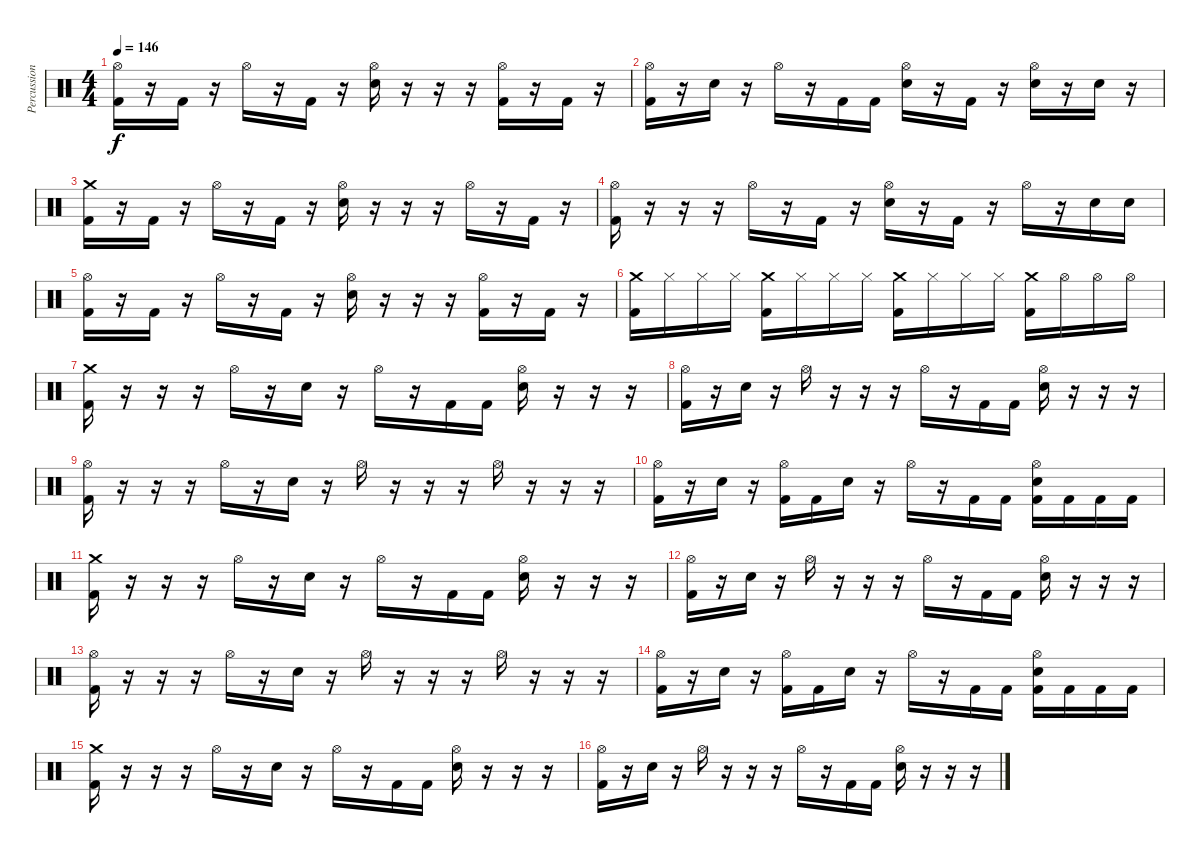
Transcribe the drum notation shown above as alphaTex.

\track ("Percussion" "Percussion") {instrument percussion}
\staff {score}
\articulation defaults
\ts (4 4)
\tempo 146
\clef neutral
\ks c
("Hi-Hat (open)" "Kick (hit) 2").16{dy f} r.16 "Kick (hit) 2".16 r.16 "Hi-Hat (open)".16 r.16 "Kick (hit) 2".16 r.16 ("Hi-Hat (open)" "Snare (hit) 2").16 r.16 r.16 r.16 ("Hi-Hat (open)" "Kick (hit) 2").16 r.16 "Kick (hit) 2".16 r.16 |
("Hi-Hat (open)" "Kick (hit) 2").16 r.16 "Snare (hit) 2".16 r.16 "Hi-Hat (open)".16 r.16 "Kick (hit) 2".16 "Kick (hit) 2".16 ("Hi-Hat (open)" "Snare (hit) 2").16 r.16 "Kick (hit) 2".16 r.16 ("Hi-Hat (open)" "Snare (hit) 2").16 r.16 "Snare (hit) 2".16 r.16 |
("Crash medium (hit)" "Kick (hit) 2").16 r.16 "Kick (hit) 2".16 r.16 "Hi-Hat (open)".16 r.16 "Kick (hit) 2".16 r.16 ("Hi-Hat (open)" "Snare (hit) 2").16 r.16 r.16 r.16 "Hi-Hat (open)".16 r.16 "Kick (hit) 2".16 r.16 |
("Hi-Hat (open)" "Kick (hit) 2").16 r.16 r.16 r.16 "Hi-Hat (open)".16 r.16 "Kick (hit) 2".16 r.16 ("Hi-Hat (open)" "Snare (hit) 2").16 r.16 "Kick (hit) 2".16 r.16 "Hi-Hat (open)".16 r.16 "Snare (hit) 2".16 "Snare (hit) 2".16 |
("Hi-Hat (open)" "Kick (hit) 2").16 r.16 "Kick (hit) 2".16 r.16 "Hi-Hat (open)".16 r.16 "Kick (hit) 2".16 r.16 ("Hi-Hat (open)" "Snare (hit) 2").16 r.16 r.16 r.16 ("Hi-Hat (open)" "Kick (hit) 2").16 r.16 "Kick (hit) 2".16 r.16 |
("Crash medium (hit)" "Kick (hit) 2").16 "Hi-Hat (closed)".16 "Hi-Hat (closed)".16 "Hi-Hat (closed)".16 ("Crash medium (hit)" "Kick (hit) 2").16 "Hi-Hat (closed)".16 "Hi-Hat (closed)".16 "Hi-Hat (closed)".16 ("Crash medium (hit)" "Kick (hit) 2").16 "Hi-Hat (closed)".16 "Hi-Hat (closed)".16 "Hi-Hat (closed)".16 ("Crash medium (hit)" "Kick (hit) 2").16 "Hi-Hat (open)".16 "Hi-Hat (open)".16 "Hi-Hat (open)".16 |
("Crash medium (hit)" "Kick (hit) 2").16 r.16 r.16 r.16 "Hi-Hat (open)".16 r.16 "Snare (hit) 2".16 r.16 "Hi-Hat (open)".16 r.16 "Kick (hit) 2".16 "Kick (hit) 2".16 ("Hi-Hat (open)" "Snare (hit) 2").16 r.16 r.16 r.16 |
("Hi-Hat (open)" "Kick (hit) 2").16 r.16 "Snare (hit) 2".16 r.16 "Hi-Hat (open)".16 r.16 r.16 r.16 "Hi-Hat (open)".16 r.16 "Kick (hit) 2".16 "Kick (hit) 2".16 ("Hi-Hat (open)" "Snare (hit) 2").16 r.16 r.16 r.16 |
("Hi-Hat (open)" "Kick (hit) 2").16 r.16 r.16 r.16 "Hi-Hat (open)".16 r.16 "Snare (hit) 2".16 r.16 "Hi-Hat (open)".16 r.16 r.16 r.16 "Hi-Hat (open)".16 r.16 r.16 r.16 |
("Hi-Hat (open)" "Kick (hit) 2").16 r.16 "Snare (hit) 2".16 r.16 ("Hi-Hat (open)" "Kick (hit) 2").16 "Kick (hit) 2".16 "Snare (hit) 2".16 r.16 "Hi-Hat (open)".16 r.16 "Kick (hit) 2".16 "Kick (hit) 2".16 ("Hi-Hat (open)" "Snare (hit) 2" "Kick (hit) 2").16 "Kick (hit) 2".16 "Kick (hit) 2".16 "Kick (hit) 2".16 |
("Crash medium (hit)" "Kick (hit) 2").16 r.16 r.16 r.16 "Hi-Hat (open)".16 r.16 "Snare (hit) 2".16 r.16 "Hi-Hat (open)".16 r.16 "Kick (hit) 2".16 "Kick (hit) 2".16 ("Hi-Hat (open)" "Snare (hit) 2").16 r.16 r.16 r.16 |
("Hi-Hat (open)" "Kick (hit) 2").16 r.16 "Snare (hit) 2".16 r.16 "Hi-Hat (open)".16 r.16 r.16 r.16 "Hi-Hat (open)".16 r.16 "Kick (hit) 2".16 "Kick (hit) 2".16 ("Hi-Hat (open)" "Snare (hit) 2").16 r.16 r.16 r.16 |
("Hi-Hat (open)" "Kick (hit) 2").16 r.16 r.16 r.16 "Hi-Hat (open)".16 r.16 "Snare (hit) 2".16 r.16 "Hi-Hat (open)".16 r.16 r.16 r.16 "Hi-Hat (open)".16 r.16 r.16 r.16 |
("Hi-Hat (open)" "Kick (hit) 2").16 r.16 "Snare (hit) 2".16 r.16 ("Hi-Hat (open)" "Kick (hit) 2").16 "Kick (hit) 2".16 "Snare (hit) 2".16 r.16 "Hi-Hat (open)".16 r.16 "Kick (hit) 2".16 "Kick (hit) 2".16 ("Hi-Hat (open)" "Snare (hit) 2" "Kick (hit) 2").16 "Kick (hit) 2".16 "Kick (hit) 2".16 "Kick (hit) 2".16 |
("Crash medium (hit)" "Kick (hit) 2").16 r.16 r.16 r.16 "Hi-Hat (open)".16 r.16 "Snare (hit) 2".16 r.16 "Hi-Hat (open)".16 r.16 "Kick (hit) 2".16 "Kick (hit) 2".16 ("Hi-Hat (open)" "Snare (hit) 2").16 r.16 r.16 r.16 |
("Hi-Hat (open)" "Kick (hit) 2").16 r.16 "Snare (hit) 2".16 r.16 "Hi-Hat (open)".16 r.16 r.16 r.16 "Hi-Hat (open)".16 r.16 "Kick (hit) 2".16 "Kick (hit) 2".16 ("Hi-Hat (open)" "Snare (hit) 2").16 r.16 r.16 r.16
